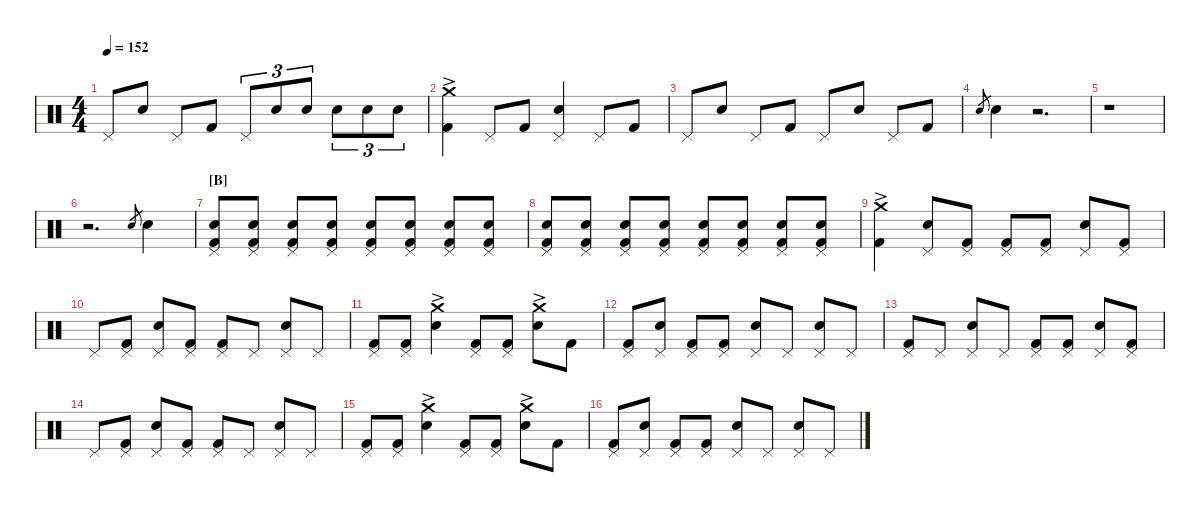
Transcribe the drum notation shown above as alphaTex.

\hideDynamics
\bracketExtendMode nobrackets
\singleTrackTrackNamePolicy hidden
\multiTrackTrackNamePolicy hidden
\firstSystemTrackNameMode fullname
\firstSystemTrackNameOrientation horizontal
\otherSystemsTrackNameOrientation horizontal
\track ("Drumkit" "Drums") {instrument percussion}
\staff {score}
\articulation defaults
\ts (4 4)
\tempo 152
\clef neutral
\ks c "Pedal Hi-Hat (hit)".8{dy f beam Up} "Snare (hit) 2".8{beam Up} "Pedal Hi-Hat (hit)".8{beam Up} "Kick (hit) 2".8{beam Up} "Pedal Hi-Hat (hit)".8{tu (3 2) beam Up} "Snare (hit) 2".8{tu (3 2) beam Up} "Snare (hit) 2".8{tu (3 2) beam Up} "Snare (hit) 2".8{tu (3 2) beam Down} "Snare (hit) 2".8{tu (3 2) beam Down} "Snare (hit) 2".8{tu (3 2) beam Down}
|
("Crash medium (hit)"{ac} "Kick (hit) 2").4{beam Down} "Pedal Hi-Hat (hit)".8{beam Up} "Kick (hit) 2".8{beam Up} ("Pedal Hi-Hat (hit)" "Snare (hit) 2").4{beam Up} "Pedal Hi-Hat (hit)".8{beam Up} "Kick (hit) 2".8{beam Up} |
"Pedal Hi-Hat (hit)".8{beam Up} "Snare (hit) 2".8{beam Up} "Pedal Hi-Hat (hit)".8{beam Up} "Kick (hit) 2".8{beam Up} "Pedal Hi-Hat (hit)".8{beam Up} "Snare (hit) 2".8{beam Up} "Pedal Hi-Hat (hit)".8{beam Up} "Kick (hit) 2".8{beam Up} |
"Snare (hit) 2".8{gr dy mf beam Up} "Snare (hit) 2".4{dy f beam Down} r.2{d beam Down} |
r.1{beam Down} |
r.2{d beam Down} "Snare (hit) 2".8{gr dy mf beam Up} "Snare (hit) 2".4{dy f beam Down} |
\section ("B" "")
("Pedal Hi-Hat (hit)" "Snare (hit) 2" "Kick (hit) 2").8{dy p beam Up} ("Pedal Hi-Hat (hit)" "Snare (hit) 2" "Kick (hit) 2").8{beam Up} ("Pedal Hi-Hat (hit)" "Snare (hit) 2" "Kick (hit) 2").8{beam Up} ("Pedal Hi-Hat (hit)" "Snare (hit) 2" "Kick (hit) 2").8{beam Up} ("Pedal Hi-Hat (hit)" "Snare (hit) 2" "Kick (hit) 2").8{beam Up} ("Pedal Hi-Hat (hit)" "Snare (hit) 2" "Kick (hit) 2").8{beam Up} ("Pedal Hi-Hat (hit)" "Snare (hit) 2" "Kick (hit) 2").8{dy mp beam Up} ("Pedal Hi-Hat (hit)" "Snare (hit) 2" "Kick (hit) 2").8{beam Up} |
("Pedal Hi-Hat (hit)" "Snare (hit) 2" "Kick (hit) 2").8{beam Up} ("Pedal Hi-Hat (hit)" "Snare (hit) 2" "Kick (hit) 2").8{beam Up} ("Pedal Hi-Hat (hit)" "Snare (hit) 2" "Kick (hit) 2").8{beam Up} ("Pedal Hi-Hat (hit)" "Snare (hit) 2" "Kick (hit) 2").8{dy mf beam Up} ("Pedal Hi-Hat (hit)" "Snare (hit) 2" "Kick (hit) 2").8{beam Up} ("Pedal Hi-Hat (hit)" "Snare (hit) 2" "Kick (hit) 2").8{beam Up} ("Pedal Hi-Hat (hit)" "Snare (hit) 2" "Kick (hit) 2").8{beam Up} ("Pedal Hi-Hat (hit)" "Snare (hit) 2" "Kick (hit) 2").8{dy f beam Up} |
("Crash medium (hit)"{ac} "Kick (hit) 2").4{beam Down} ("Pedal Hi-Hat (hit)" "Snare (hit) 2").8{beam Up} ("Pedal Hi-Hat (hit)" "Kick (hit) 2").8{beam Up} ("Pedal Hi-Hat (hit)" "Kick (hit) 2").8{beam Up} ("Pedal Hi-Hat (hit)" "Kick (hit) 2").8{beam Up} ("Pedal Hi-Hat (hit)" "Snare (hit) 2").8{beam Up} ("Pedal Hi-Hat (hit)" "Kick (hit) 2").8{beam Up} |
"Pedal Hi-Hat (hit)".8{beam Up} ("Pedal Hi-Hat (hit)" "Kick (hit) 2").8{beam Up} ("Pedal Hi-Hat (hit)" "Snare (hit) 2").8{beam Up} ("Pedal Hi-Hat (hit)" "Kick (hit) 2").8{beam Up} ("Pedal Hi-Hat (hit)" "Kick (hit) 2").8{beam Up} "Pedal Hi-Hat (hit)".8{beam Up} ("Pedal Hi-Hat (hit)" "Snare (hit) 2").8{beam Up} "Pedal Hi-Hat (hit)".8{beam Up} |
("Pedal Hi-Hat (hit)" "Kick (hit) 2").8{beam Up} ("Pedal Hi-Hat (hit)" "Kick (hit) 2").8{beam Up} ("Crash medium (hit)"{ac} "Snare (hit) 2").4{beam Down} ("Pedal Hi-Hat (hit)" "Kick (hit) 2").8{beam Up} ("Pedal Hi-Hat (hit)" "Kick (hit) 2").8{beam Up} ("Crash medium (hit)"{ac} "Snare (hit) 2").8{beam Down} "Kick (hit) 2".8{beam Down} |
("Pedal Hi-Hat (hit)" "Kick (hit) 2").8{beam Up} ("Pedal Hi-Hat (hit)" "Snare (hit) 2").8{beam Up} ("Pedal Hi-Hat (hit)" "Kick (hit) 2").8{beam Up} ("Pedal Hi-Hat (hit)" "Kick (hit) 2").8{beam Up} ("Pedal Hi-Hat (hit)" "Snare (hit) 2").8{beam Up} "Pedal Hi-Hat (hit)".8{beam Up} ("Pedal Hi-Hat (hit)" "Snare (hit) 2").8{beam Up} "Pedal Hi-Hat (hit)".8{beam Up} |
("Pedal Hi-Hat (hit)" "Kick (hit) 2").8{beam Up} "Pedal Hi-Hat (hit)".8{beam Up} ("Pedal Hi-Hat (hit)" "Snare (hit) 2").8{beam Up} "Pedal Hi-Hat (hit)".8{beam Up} ("Pedal Hi-Hat (hit)" "Kick (hit) 2").8{beam Up} ("Pedal Hi-Hat (hit)" "Kick (hit) 2").8{beam Up} ("Pedal Hi-Hat (hit)" "Snare (hit) 2").8{beam Up} ("Pedal Hi-Hat (hit)" "Kick (hit) 2").8{beam Up} |
"Pedal Hi-Hat (hit)".8{beam Up} ("Pedal Hi-Hat (hit)" "Kick (hit) 2").8{beam Up} ("Pedal Hi-Hat (hit)" "Snare (hit) 2").8{beam Up} ("Pedal Hi-Hat (hit)" "Kick (hit) 2").8{beam Up} ("Pedal Hi-Hat (hit)" "Kick (hit) 2").8{beam Up} "Pedal Hi-Hat (hit)".8{beam Up} ("Pedal Hi-Hat (hit)" "Snare (hit) 2").8{beam Up} "Pedal Hi-Hat (hit)".8{beam Up} |
("Pedal Hi-Hat (hit)" "Kick (hit) 2").8{beam Up} ("Pedal Hi-Hat (hit)" "Kick (hit) 2").8{beam Up} ("Crash medium (hit)"{ac} "Snare (hit) 2").4{beam Down} ("Pedal Hi-Hat (hit)" "Kick (hit) 2").8{beam Up} ("Pedal Hi-Hat (hit)" "Kick (hit) 2").8{beam Up} ("Crash medium (hit)"{ac} "Snare (hit) 2").8{beam Down} "Kick (hit) 2".8{beam Down} |
("Pedal Hi-Hat (hit)" "Kick (hit) 2").8{beam Up} ("Pedal Hi-Hat (hit)" "Snare (hit) 2").8{beam Up} ("Pedal Hi-Hat (hit)" "Kick (hit) 2").8{beam Up} ("Pedal Hi-Hat (hit)" "Kick (hit) 2").8{beam Up} ("Pedal Hi-Hat (hit)" "Snare (hit) 2").8{beam Up} "Pedal Hi-Hat (hit)".8{beam Up} ("Pedal Hi-Hat (hit)" "Snare (hit) 2").8{beam Up} "Pedal Hi-Hat (hit)".8{beam Up}
